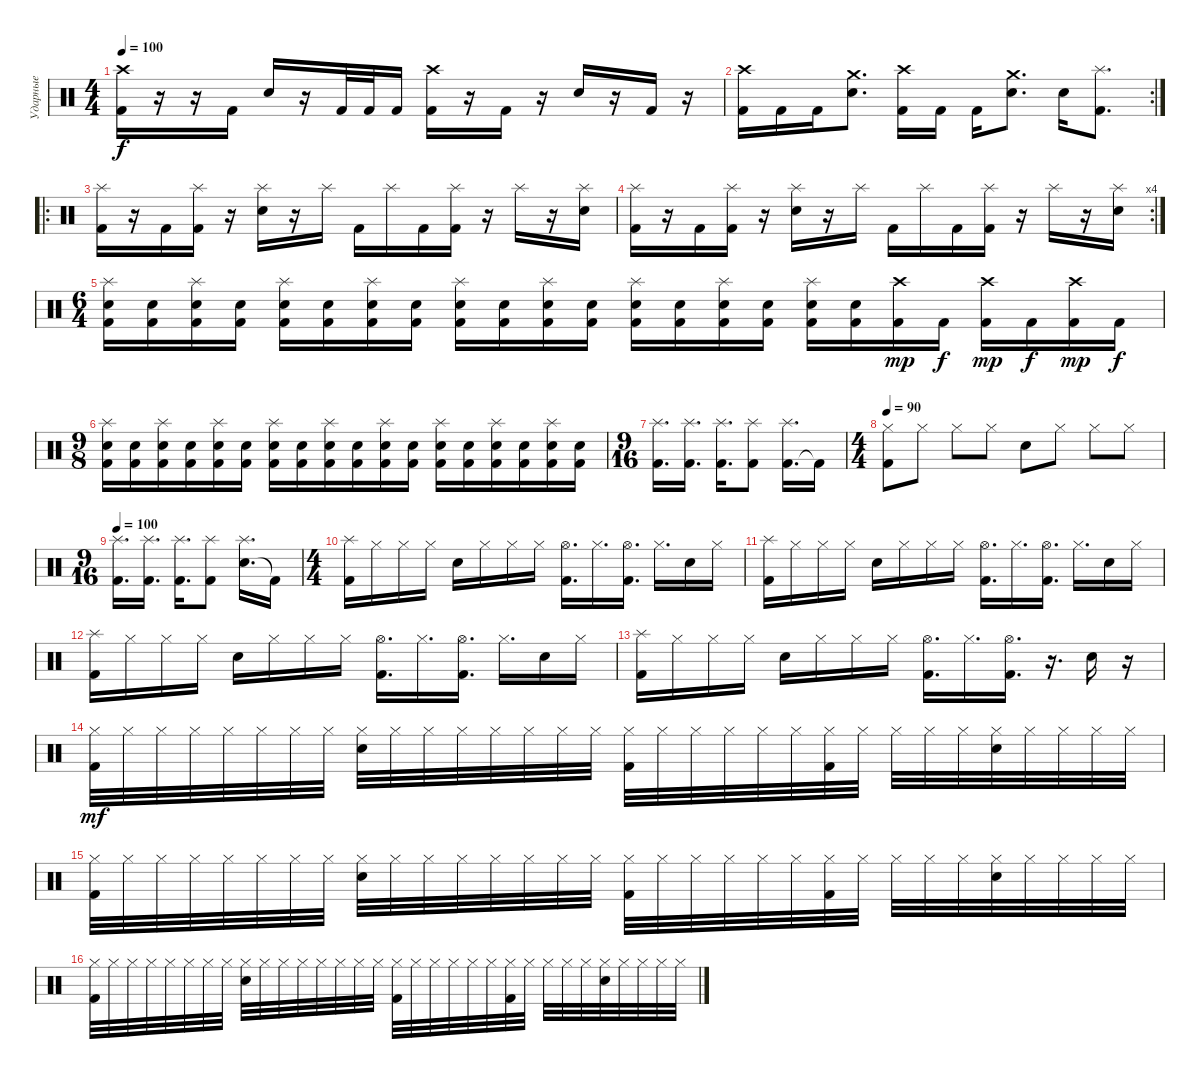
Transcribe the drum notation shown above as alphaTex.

\track ("Ударные" "Ударные") {instrument percussion}
\staff {score}
\articulation defaults
\ts (4 4)
\tempo 100
\clef neutral
\ks c
("Kick (hit) 2" "Crash high (hit)").16{dy f} r.16 r.16 "Kick (hit) 2".16 "Electric Snare (hit)".16 r.16 "Kick (hit) 2".32 "Kick (hit) 2".32 "Kick (hit) 2".16 ("Kick (hit) 2" "Crash high (hit)").16 r.16 "Kick (hit) 2".16 r.16 "Electric Snare (hit)".16 r.16 "Kick (hit) 2".16 r.16 |
\rc 2
("Kick (hit) 2" "Crash high (hit)").16 "Kick (hit) 2".16 "Kick (hit) 2".16 ("Electric Snare (hit)" "Crash medium (hit)").8{d} ("Kick (hit) 2" "Crash high (hit)").16 "Kick (hit) 2".16 "Kick (hit) 2".16 ("Electric Snare (hit)" "Crash medium (hit)").8{d} "Electric Snare (hit)".16 ("Kick (hit) 2" "Splash (hit)").8{d} |
\ro
("Kick (hit) 2" "Splash (hit)").16 r.16 "Kick (hit) 2".16 ("Kick (hit) 2" "Splash (hit)").16 r.16 ("Electric Snare (hit)" "Splash (hit)").16 r.16 "Splash (hit)".16 "Kick (hit) 2".16 "Splash (hit)".16 "Kick (hit) 2".16 ("Kick (hit) 2" "Splash (hit)").16 r.16 "Splash (hit)".16 r.16 ("Electric Snare (hit)" "Splash (hit)").16 |
\rc 4
("Kick (hit) 2" "Splash (hit)").16 r.16 "Kick (hit) 2".16 ("Kick (hit) 2" "Splash (hit)").16 r.16 ("Electric Snare (hit)" "Splash (hit)").16 r.16 "Splash (hit)".16 "Kick (hit) 2".16 "Splash (hit)".16 "Kick (hit) 2".16 ("Kick (hit) 2" "Splash (hit)").16 r.16 "Splash (hit)".16 r.16 ("Electric Snare (hit)" "Splash (hit)").16 |
\ts (6 4)
("Kick (hit) 2" "Splash (hit)" "Electric Snare (hit)").16 ("Kick (hit) 2" "Electric Snare (hit)").16 ("Kick (hit) 2" "Splash (hit)" "Electric Snare (hit)").16 ("Kick (hit) 2" "Electric Snare (hit)").16 ("Kick (hit) 2" "Splash (hit)" "Electric Snare (hit)").16 ("Kick (hit) 2" "Electric Snare (hit)").16 ("Splash (hit)" "Kick (hit) 2" "Electric Snare (hit)").16 ("Kick (hit) 2" "Electric Snare (hit)").16 ("Kick (hit) 2" "Splash (hit)" "Electric Snare (hit)").16 ("Kick (hit) 2" "Electric Snare (hit)").16 ("Kick (hit) 2" "Splash (hit)" "Electric Snare (hit)").16 ("Kick (hit) 2" "Electric Snare (hit)").16 ("Kick (hit) 2" "Splash (hit)" "Electric Snare (hit)").16 ("Kick (hit) 2" "Electric Snare (hit)").16 ("Kick (hit) 2" "Splash (hit)" "Electric Snare (hit)").16 ("Kick (hit) 2" "Electric Snare (hit)").16 ("Kick (hit) 2" "Splash (hit)" "Electric Snare (hit)").16 ("Kick (hit) 2" "Electric Snare (hit)").16 ("Kick (hit) 2" "Crash high (hit)").16{dy mp} "Kick (hit) 2".16{dy f} ("Kick (hit) 2" "Crash high (hit)").16{dy mp} "Kick (hit) 2".16{dy f} ("Kick (hit) 2" "Crash high (hit)").16{dy mp} "Kick (hit) 2".16{dy f} |
\ts (9 8)
("Kick (hit) 2" "Splash (hit)" "Electric Snare (hit)").16 ("Kick (hit) 2" "Electric Snare (hit)").16 ("Kick (hit) 2" "Splash (hit)" "Electric Snare (hit)").16 ("Kick (hit) 2" "Electric Snare (hit)").16 ("Kick (hit) 2" "Splash (hit)" "Electric Snare (hit)").16 ("Kick (hit) 2" "Electric Snare (hit)").16 ("Splash (hit)" "Kick (hit) 2" "Electric Snare (hit)").16 ("Kick (hit) 2" "Electric Snare (hit)").16 ("Kick (hit) 2" "Splash (hit)" "Electric Snare (hit)").16 ("Kick (hit) 2" "Electric Snare (hit)").16 ("Kick (hit) 2" "Splash (hit)" "Electric Snare (hit)").16 ("Kick (hit) 2" "Electric Snare (hit)").16 ("Kick (hit) 2" "Splash (hit)" "Electric Snare (hit)").16 ("Kick (hit) 2" "Electric Snare (hit)").16 ("Kick (hit) 2" "Splash (hit)" "Electric Snare (hit)").16 ("Kick (hit) 2" "Electric Snare (hit)").16 ("Kick (hit) 2" "Splash (hit)" "Electric Snare (hit)").16 ("Kick (hit) 2" "Electric Snare (hit)").16 |
\ts (9 16)
("Kick (hit) 2" "Splash (hit)").16{d} ("Kick (hit) 2" "Splash (hit)").16{d} ("Kick (hit) 2" "Splash (hit)").16{d} ("Kick (hit) 2" "Splash (hit)").8 ("Kick (hit) 2" "Splash (hit)").16{d} "Kick (hit) 2"{t}.16 |
\ts (4 4)
\tempo 90
("Hi-Hat (closed)" "Kick (hit) 2").8 "Hi-Hat (closed)".8 "Hi-Hat (closed)".8 "Hi-Hat (closed)".8 "Electric Snare (hit)".8 "Hi-Hat (closed)".8 "Hi-Hat (closed)".8 "Hi-Hat (closed)".8 |
\ts (9 16)
\tempo 100
("Kick (hit) 2" "Splash (hit)").16{d} ("Kick (hit) 2" "Splash (hit)").16{d} ("Kick (hit) 2" "Splash (hit)").16{d} ("Kick (hit) 2" "Splash (hit)").8 ("Electric Snare (hit)" "Splash (hit)").16{d} "Kick (hit) 2"{t}.16 |
\ts (4 4)
("Splash (hit)" "Kick (hit) 2").16 "Hi-Hat (closed)".16 "Hi-Hat (closed)".16 "Hi-Hat (closed)".16 "Electric Snare (hit)".16 "Hi-Hat (closed)".16 "Hi-Hat (closed)".16 "Hi-Hat (closed)".16 ("Hi-Hat (open)" "Kick (hit) 2").16{d} "Hi-Hat (closed)".16{d} ("Hi-Hat (open)" "Kick (hit) 2").16{d} "Hi-Hat (closed)".16{d} "Electric Snare (hit)".16 "Hi-Hat (closed)".16 |
("Splash (hit)" "Kick (hit) 2").16 "Hi-Hat (closed)".16 "Hi-Hat (closed)".16 "Hi-Hat (closed)".16 "Electric Snare (hit)".16 "Hi-Hat (closed)".16 "Hi-Hat (closed)".16 "Hi-Hat (closed)".16 ("Hi-Hat (open)" "Kick (hit) 2").16{d} "Hi-Hat (closed)".16{d} ("Hi-Hat (open)" "Kick (hit) 2").16{d} "Hi-Hat (closed)".16{d} "Electric Snare (hit)".16 "Hi-Hat (closed)".16 |
("Splash (hit)" "Kick (hit) 2").16 "Hi-Hat (closed)".16 "Hi-Hat (closed)".16 "Hi-Hat (closed)".16 "Electric Snare (hit)".16 "Hi-Hat (closed)".16 "Hi-Hat (closed)".16 "Hi-Hat (closed)".16 ("Hi-Hat (open)" "Kick (hit) 2").16{d} "Hi-Hat (closed)".16{d} ("Hi-Hat (open)" "Kick (hit) 2").16{d} "Hi-Hat (closed)".16{d} "Electric Snare (hit)".16 "Hi-Hat (closed)".16 |
("Splash (hit)" "Kick (hit) 2").16 "Hi-Hat (closed)".16 "Hi-Hat (closed)".16 "Hi-Hat (closed)".16 "Electric Snare (hit)".16 "Hi-Hat (closed)".16 "Hi-Hat (closed)".16 "Hi-Hat (closed)".16 ("Hi-Hat (open)" "Kick (hit) 2").16{d} "Hi-Hat (closed)".16{d} ("Hi-Hat (open)" "Kick (hit) 2").16{d} r.16{d} "Electric Snare (hit)".16 r.16 |
("Hi-Hat (closed)" "Kick (hit) 2").32{dy mf} "Hi-Hat (closed)".32 "Hi-Hat (closed)".32 "Hi-Hat (closed)".32 "Hi-Hat (closed)".32 "Hi-Hat (closed)".32 "Hi-Hat (closed)".32 "Hi-Hat (closed)".32 ("Hi-Hat (closed)" "Electric Snare (hit)").32 "Hi-Hat (closed)".32 "Hi-Hat (closed)".32 "Hi-Hat (closed)".32 "Hi-Hat (closed)".32 "Hi-Hat (closed)".32 "Hi-Hat (closed)".32 "Hi-Hat (closed)".32 ("Hi-Hat (closed)" "Kick (hit) 2").32 "Hi-Hat (closed)".32 "Hi-Hat (closed)".32 "Hi-Hat (closed)".32 "Hi-Hat (closed)".32 "Hi-Hat (closed)".32 ("Hi-Hat (closed)" "Kick (hit) 2").32 "Hi-Hat (closed)".32 "Hi-Hat (closed)".32 "Hi-Hat (closed)".32 "Hi-Hat (closed)".32 ("Hi-Hat (closed)" "Electric Snare (hit)").32 "Hi-Hat (closed)".32 "Hi-Hat (closed)".32 "Hi-Hat (closed)".32 "Hi-Hat (closed)".32 |
("Hi-Hat (closed)" "Kick (hit) 2").32 "Hi-Hat (closed)".32 "Hi-Hat (closed)".32 "Hi-Hat (closed)".32 "Hi-Hat (closed)".32 "Hi-Hat (closed)".32 "Hi-Hat (closed)".32 "Hi-Hat (closed)".32 ("Hi-Hat (closed)" "Electric Snare (hit)").32 "Hi-Hat (closed)".32 "Hi-Hat (closed)".32 "Hi-Hat (closed)".32 "Hi-Hat (closed)".32 "Hi-Hat (closed)".32 "Hi-Hat (closed)".32 "Hi-Hat (closed)".32 ("Hi-Hat (closed)" "Kick (hit) 2").32 "Hi-Hat (closed)".32 "Hi-Hat (closed)".32 "Hi-Hat (closed)".32 "Hi-Hat (closed)".32 "Hi-Hat (closed)".32 ("Hi-Hat (closed)" "Kick (hit) 2").32 "Hi-Hat (closed)".32 "Hi-Hat (closed)".32 "Hi-Hat (closed)".32 "Hi-Hat (closed)".32 ("Hi-Hat (closed)" "Electric Snare (hit)").32 "Hi-Hat (closed)".32 "Hi-Hat (closed)".32 "Hi-Hat (closed)".32 "Hi-Hat (closed)".32 |
("Hi-Hat (closed)" "Kick (hit) 2").32 "Hi-Hat (closed)".32 "Hi-Hat (closed)".32 "Hi-Hat (closed)".32 "Hi-Hat (closed)".32 "Hi-Hat (closed)".32 "Hi-Hat (closed)".32 "Hi-Hat (closed)".32 ("Hi-Hat (closed)" "Electric Snare (hit)").32 "Hi-Hat (closed)".32 "Hi-Hat (closed)".32 "Hi-Hat (closed)".32 "Hi-Hat (closed)".32 "Hi-Hat (closed)".32 "Hi-Hat (closed)".32 "Hi-Hat (closed)".32 ("Hi-Hat (closed)" "Kick (hit) 2").32 "Hi-Hat (closed)".32 "Hi-Hat (closed)".32 "Hi-Hat (closed)".32 "Hi-Hat (closed)".32 "Hi-Hat (closed)".32 ("Hi-Hat (closed)" "Kick (hit) 2").32 "Hi-Hat (closed)".32 "Hi-Hat (closed)".32 "Hi-Hat (closed)".32 "Hi-Hat (closed)".32 ("Hi-Hat (closed)" "Electric Snare (hit)").32 "Hi-Hat (closed)".32 "Hi-Hat (closed)".32 "Hi-Hat (closed)".32 "Hi-Hat (closed)".32
